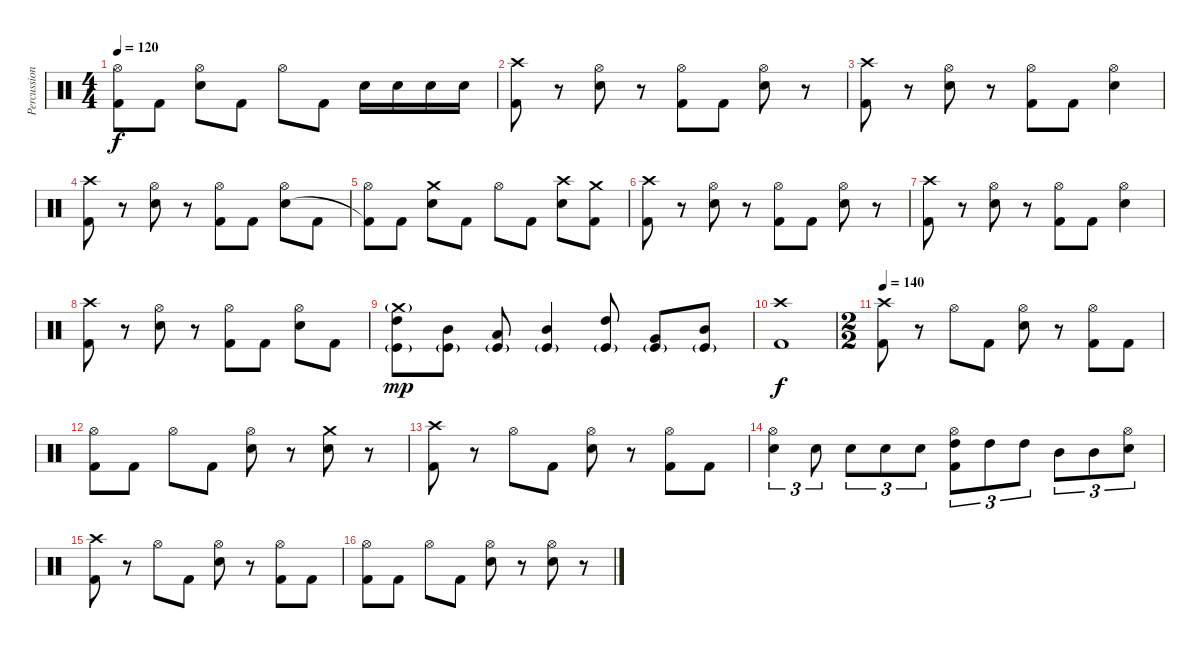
\track ("Percussion(Satish)" "Percussion") {instrument percussion}
\staff {score}
\articulation defaults
\ts (4 4)
\tempo 120
\clef neutral
\ks c
("Hi-Hat (open)" "Kick (hit) 2"{t}).8{dy f} "Kick (hit) 2".8 ("Hi-Hat (open)" "Snare (hit) 2").8 "Kick (hit) 2".8 "Hi-Hat (open)".8 "Kick (hit) 2".8 "Snare (hit) 2".16 "Snare (hit) 2".16 "Snare (hit) 2".16 "Snare (hit) 2".16 |
("Crash high (hit)" "Kick (hit) 2").8 r.8 ("Hi-Hat (open)" "Snare (hit) 2").8 r.8 ("Hi-Hat (open)" "Kick (hit) 2").8 "Kick (hit) 2".8 ("Hi-Hat (open)" "Snare (hit) 2").8 r.8 |
("Crash high (hit)" "Kick (hit) 2").8 r.8 ("Hi-Hat (open)" "Snare (hit) 2").8 r.8 ("Hi-Hat (open)" "Kick (hit) 2").8 "Kick (hit) 2".8 ("Hi-Hat (open)" "Snare (hit) 2").4 |
("Crash high (hit)" "Kick (hit) 2").8 r.8 ("Hi-Hat (open)" "Snare (hit) 2").8 r.8 ("Hi-Hat (open)" "Kick (hit) 2").8 "Kick (hit) 2".8 ("Hi-Hat (open)" "Snare (hit) 2").8 "Kick (hit) 2".8 |
("Hi-Hat (open)" "Kick (hit) 2"{t}).8 "Kick (hit) 2".8 ("Crash medium (hit)" "Snare (hit) 2").8 "Kick (hit) 2".8 "Hi-Hat (open)".8 "Kick (hit) 2".8 ("Crash high (hit)" "Snare (hit) 2").8 ("Crash medium (hit)" "Kick (hit) 2").8 |
("Crash high (hit)" "Kick (hit) 2").8 r.8 ("Hi-Hat (open)" "Snare (hit) 2").8 r.8 ("Hi-Hat (open)" "Kick (hit) 2").8 "Kick (hit) 2".8 ("Hi-Hat (open)" "Snare (hit) 2").8 r.8 |
("Crash high (hit)" "Kick (hit) 2").8 r.8 ("Hi-Hat (open)" "Snare (hit) 2").8 r.8 ("Hi-Hat (open)" "Kick (hit) 2").8 "Kick (hit) 2".8 ("Hi-Hat (open)" "Snare (hit) 2").4 |
("Crash high (hit)" "Kick (hit) 2").8 r.8 ("Hi-Hat (open)" "Snare (hit) 2").8 r.8 ("Hi-Hat (open)" "Kick (hit) 2").8 "Kick (hit) 2".8 ("Hi-Hat (open)" "Snare (hit) 2").8 "Kick (hit) 2".8 |
("Crash medium (hit)"{g} "High Tom (hit)" "Kick (hit)"{g}).8{dy mp} ("Mid Tom (hit)" "Kick (hit)"{g}).8 ("Low Tom (hit)" "Kick (hit)"{g}).8 ("Mid Tom (hit)" "Kick (hit)"{g}).4 ("High Tom (hit)" "Kick (hit)"{g}).8 ("Very Low Tom (hit)" "Kick (hit)"{g}).8 ("Mid Tom (hit)" "Kick (hit)"{g}).8 |
("Crash high (hit)" "Kick (hit) 2").1{dy f} |
\ts (2 2)
\tempo 140
("Crash high (hit)" "Kick (hit) 2").8 r.8 "Hi-Hat (open)".8 "Kick (hit) 2".8 ("Hi-Hat (open)" "Snare (hit) 2").8 r.8 ("Hi-Hat (open)" "Kick (hit) 2").8 "Kick (hit) 2".8 |
("Hi-Hat (open)" "Kick (hit) 2").8 "Kick (hit) 2".8 "Hi-Hat (open)".8 "Kick (hit) 2".8 ("Hi-Hat (open)" "Snare (hit) 2").8 r.8 ("Crash medium (hit)" "Snare (hit) 2").8 r.8 |
("Crash high (hit)" "Kick (hit) 2").8 r.8 "Hi-Hat (open)".8 "Kick (hit) 2".8 ("Hi-Hat (open)" "Snare (hit) 2").8 r.8 ("Hi-Hat (open)" "Kick (hit) 2").8 "Kick (hit) 2".8 |
("Hi-Hat (open)" "Snare (hit) 2").4{tu (3 2)} "Snare (hit) 2".8{tu (3 2)} "Snare (hit) 2".8{tu (3 2)} "Snare (hit) 2".8{tu (3 2)} "Snare (hit) 2".8{tu (3 2)} ("Hi-Hat (open)" "High Tom (hit)" "Kick (hit) 2").8{tu (3 2)} "High Tom (hit)".8{tu (3 2)} "High Tom (hit)".8{tu (3 2)} "Mid Tom (hit)".8{tu (3 2)} "Mid Tom (hit)".8{tu (3 2)} ("Hi-Hat (open)" "Snare (hit) 2").8{tu (3 2)} |
("Crash high (hit)" "Kick (hit) 2").8 r.8 "Hi-Hat (open)".8 "Kick (hit) 2".8 ("Hi-Hat (open)" "Snare (hit) 2").8 r.8 ("Hi-Hat (open)" "Kick (hit) 2").8 "Kick (hit) 2".8 |
("Hi-Hat (open)" "Kick (hit) 2").8 "Kick (hit) 2".8 "Hi-Hat (open)".8 "Kick (hit) 2".8 ("Hi-Hat (open)" "Snare (hit) 2").8 r.8 ("Hi-Hat (open)" "Snare (hit) 2").8 r.8
